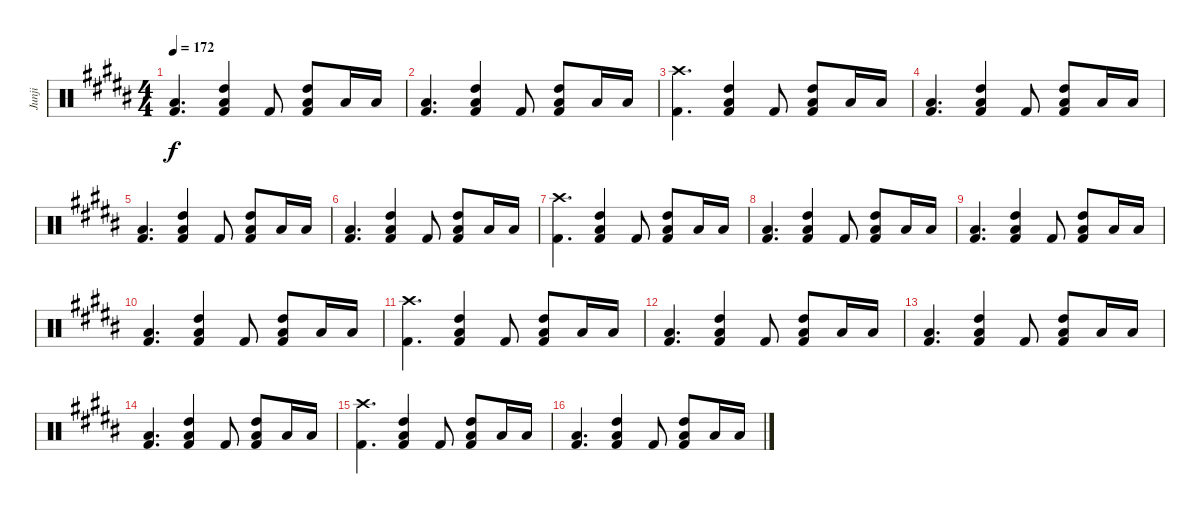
\track ("Junji" "Junji") {instrument percussion}
\staff {score}
\articulation defaults
\ts (4 4)
\tempo 172
\clef neutral
\ks b
("Kick (hit) 2" "Low Tom (hit)").4{d dy f} ("Low Floor Tom (hit)" "Kick (hit) 2" "High Tom (hit)").4 "Kick (hit) 2".8 ("Low Floor Tom (hit)" "Kick (hit) 2" "High Tom (hit)").8 "Low Tom (hit)".16 "Low Tom (hit)".16 |
("Kick (hit) 2" "Low Tom (hit)").4{d} ("Low Floor Tom (hit)" "Kick (hit) 2" "High Tom (hit)").4 "Kick (hit) 2".8 ("Low Floor Tom (hit)" "Kick (hit) 2" "High Tom (hit)").8 "Low Tom (hit)".16 "Low Tom (hit)".16 |
("Crash high (hit)" "Kick (hit) 2").4{d} ("Low Floor Tom (hit)" "Kick (hit) 2" "High Tom (hit)").4 "Kick (hit) 2".8 ("Low Floor Tom (hit)" "Kick (hit) 2" "High Tom (hit)").8 "Low Tom (hit)".16 "Low Tom (hit)".16 |
("Kick (hit) 2" "Low Tom (hit)").4{d} ("Low Floor Tom (hit)" "Kick (hit) 2" "High Tom (hit)").4 "Kick (hit) 2".8 ("Low Floor Tom (hit)" "Kick (hit) 2" "High Tom (hit)").8 "Low Tom (hit)".16 "Low Tom (hit)".16 |
("Kick (hit) 2" "Low Tom (hit)").4{d} ("Low Floor Tom (hit)" "Kick (hit) 2" "High Tom (hit)").4 "Kick (hit) 2".8 ("Low Floor Tom (hit)" "Kick (hit) 2" "High Tom (hit)").8 "Low Tom (hit)".16 "Low Tom (hit)".16 |
("Kick (hit) 2" "Low Tom (hit)").4{d} ("Low Floor Tom (hit)" "Kick (hit) 2" "High Tom (hit)").4 "Kick (hit) 2".8 ("Low Floor Tom (hit)" "Kick (hit) 2" "High Tom (hit)").8 "Low Tom (hit)".16 "Low Tom (hit)".16 |
("Crash high (hit)" "Kick (hit) 2").4{d} ("Low Floor Tom (hit)" "Kick (hit) 2" "High Tom (hit)").4 "Kick (hit) 2".8 ("Low Floor Tom (hit)" "Kick (hit) 2" "High Tom (hit)").8 "Low Tom (hit)".16 "Low Tom (hit)".16 |
("Kick (hit) 2" "Low Tom (hit)").4{d} ("Low Floor Tom (hit)" "Kick (hit) 2" "High Tom (hit)").4 "Kick (hit) 2".8 ("Low Floor Tom (hit)" "Kick (hit) 2" "High Tom (hit)").8 "Low Tom (hit)".16 "Low Tom (hit)".16 |
("Kick (hit) 2" "Low Tom (hit)").4{d} ("Low Floor Tom (hit)" "Kick (hit) 2" "High Tom (hit)").4 "Kick (hit) 2".8 ("Low Floor Tom (hit)" "Kick (hit) 2" "High Tom (hit)").8 "Low Tom (hit)".16 "Low Tom (hit)".16 |
("Kick (hit) 2" "Low Tom (hit)").4{d} ("Low Floor Tom (hit)" "Kick (hit) 2" "High Tom (hit)").4 "Kick (hit) 2".8 ("Low Floor Tom (hit)" "Kick (hit) 2" "High Tom (hit)").8 "Low Tom (hit)".16 "Low Tom (hit)".16 |
("Crash high (hit)" "Kick (hit) 2").4{d} ("Low Floor Tom (hit)" "Kick (hit) 2" "High Tom (hit)").4 "Kick (hit) 2".8 ("Low Floor Tom (hit)" "Kick (hit) 2" "High Tom (hit)").8 "Low Tom (hit)".16 "Low Tom (hit)".16 |
("Kick (hit) 2" "Low Tom (hit)").4{d} ("Low Floor Tom (hit)" "Kick (hit) 2" "High Tom (hit)").4 "Kick (hit) 2".8 ("Low Floor Tom (hit)" "Kick (hit) 2" "High Tom (hit)").8 "Low Tom (hit)".16 "Low Tom (hit)".16 |
("Kick (hit) 2" "Low Tom (hit)").4{d} ("Low Floor Tom (hit)" "Kick (hit) 2" "High Tom (hit)").4 "Kick (hit) 2".8 ("Low Floor Tom (hit)" "Kick (hit) 2" "High Tom (hit)").8 "Low Tom (hit)".16 "Low Tom (hit)".16 |
("Kick (hit) 2" "Low Tom (hit)").4{d} ("Low Floor Tom (hit)" "Kick (hit) 2" "High Tom (hit)").4 "Kick (hit) 2".8 ("Low Floor Tom (hit)" "Kick (hit) 2" "High Tom (hit)").8 "Low Tom (hit)".16 "Low Tom (hit)".16 |
("Crash high (hit)" "Kick (hit) 2").4{d} ("Low Floor Tom (hit)" "Kick (hit) 2" "High Tom (hit)").4 "Kick (hit) 2".8 ("Low Floor Tom (hit)" "Kick (hit) 2" "High Tom (hit)").8 "Low Tom (hit)".16 "Low Tom (hit)".16 |
("Kick (hit) 2" "Low Tom (hit)").4{d} ("Low Floor Tom (hit)" "Kick (hit) 2" "High Tom (hit)").4 "Kick (hit) 2".8 ("Low Floor Tom (hit)" "Kick (hit) 2" "High Tom (hit)").8 "Low Tom (hit)".16 "Low Tom (hit)".16
